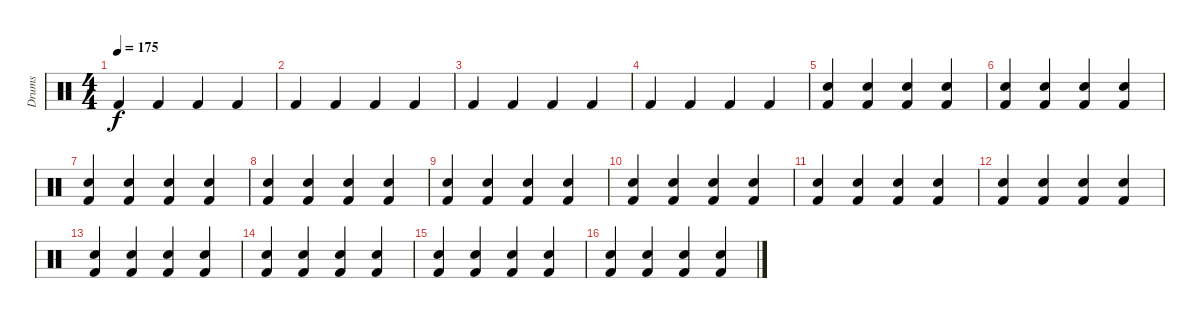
\track ("Drums" "Drums") {instrument percussion}
\staff {score}
\articulation defaults
\ts (4 4)
\tempo 175
\clef neutral
\ks c "Kick (hit) 2".4{dy f} "Kick (hit) 2".4 "Kick (hit) 2".4 "Kick (hit) 2".4
|
"Kick (hit) 2".4 "Kick (hit) 2".4 "Kick (hit) 2".4 "Kick (hit) 2".4 |
"Kick (hit) 2".4 "Kick (hit) 2".4 "Kick (hit) 2".4 "Kick (hit) 2".4 |
"Kick (hit) 2".4 "Kick (hit) 2".4 "Kick (hit) 2".4 "Kick (hit) 2".4 |
("Snare (hit) 2" "Kick (hit) 2").4 ("Snare (hit) 2" "Kick (hit) 2").4 ("Snare (hit) 2" "Kick (hit) 2").4 ("Snare (hit) 2" "Kick (hit) 2").4 |
("Snare (hit) 2" "Kick (hit) 2").4 ("Snare (hit) 2" "Kick (hit) 2").4 ("Snare (hit) 2" "Kick (hit) 2").4 ("Snare (hit) 2" "Kick (hit) 2").4 |
("Snare (hit) 2" "Kick (hit) 2").4 ("Snare (hit) 2" "Kick (hit) 2").4 ("Snare (hit) 2" "Kick (hit) 2").4 ("Snare (hit) 2" "Kick (hit) 2").4 |
("Snare (hit) 2" "Kick (hit) 2").4 ("Snare (hit) 2" "Kick (hit) 2").4 ("Snare (hit) 2" "Kick (hit) 2").4 ("Snare (hit) 2" "Kick (hit) 2").4 |
("Snare (hit) 2" "Kick (hit) 2").4 ("Snare (hit) 2" "Kick (hit) 2").4 ("Snare (hit) 2" "Kick (hit) 2").4 ("Snare (hit) 2" "Kick (hit) 2").4 |
("Snare (hit) 2" "Kick (hit) 2").4 ("Snare (hit) 2" "Kick (hit) 2").4 ("Snare (hit) 2" "Kick (hit) 2").4 ("Snare (hit) 2" "Kick (hit) 2").4 |
("Snare (hit) 2" "Kick (hit) 2").4 ("Snare (hit) 2" "Kick (hit) 2").4 ("Snare (hit) 2" "Kick (hit) 2").4 ("Snare (hit) 2" "Kick (hit) 2").4 |
("Snare (hit) 2" "Kick (hit) 2").4 ("Snare (hit) 2" "Kick (hit) 2").4 ("Snare (hit) 2" "Kick (hit) 2").4 ("Snare (hit) 2" "Kick (hit) 2").4 |
("Snare (hit) 2" "Kick (hit) 2").4 ("Snare (hit) 2" "Kick (hit) 2").4 ("Snare (hit) 2" "Kick (hit) 2").4 ("Snare (hit) 2" "Kick (hit) 2").4 |
("Snare (hit) 2" "Kick (hit) 2").4 ("Snare (hit) 2" "Kick (hit) 2").4 ("Snare (hit) 2" "Kick (hit) 2").4 ("Snare (hit) 2" "Kick (hit) 2").4 |
("Snare (hit) 2" "Kick (hit) 2").4 ("Snare (hit) 2" "Kick (hit) 2").4 ("Snare (hit) 2" "Kick (hit) 2").4 ("Snare (hit) 2" "Kick (hit) 2").4 |
("Snare (hit) 2" "Kick (hit) 2").4 ("Snare (hit) 2" "Kick (hit) 2").4 ("Snare (hit) 2" "Kick (hit) 2").4 ("Snare (hit) 2" "Kick (hit) 2").4
